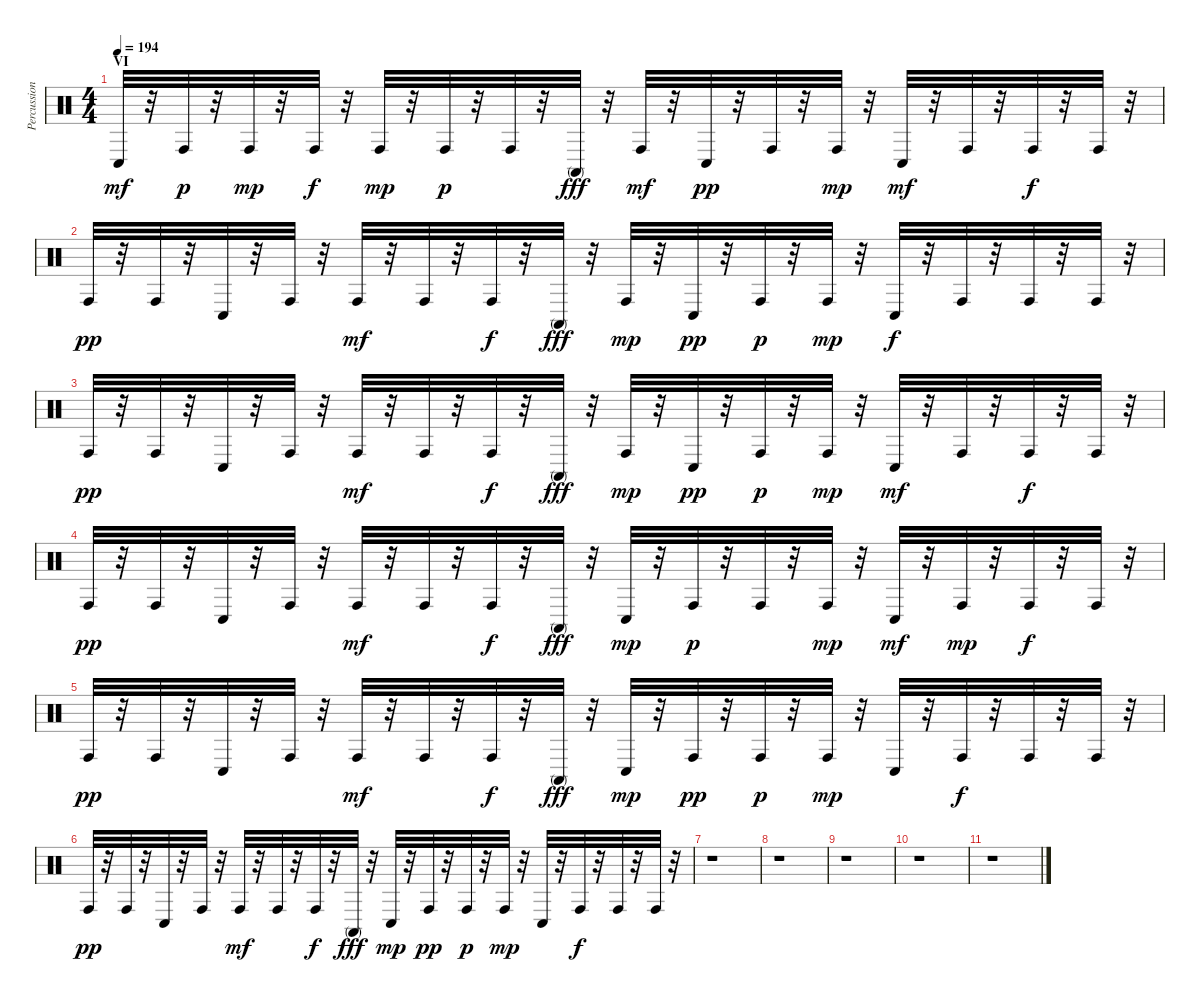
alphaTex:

\track ("Percussions" "Percussion") {instrument percussion}
\staff {score}
\articulation defaults
\ts (4 4)
\section ("" "VI")
\tempo 194
\clef neutral
\ks c "Conga low (hit)".32{dy mf}
r.32 "Conga high (hit)".32{dy p} r.32 "Conga high (hit)".32{dy mp} r.32 "Conga high (hit)".32{dy f} r.32 "Conga high (hit)".32{dy mp} r.32 "Conga high (hit)".32{dy p} r.32 "Conga high (hit)".32 r.32 "Conga high (mute)".32{dy fff} r.32 "Conga high (hit)".32{dy mf} r.32 "Conga low (hit)".32{dy pp} r.32 "Conga high (hit)".32 r.32 "Conga high (hit)".32{dy mp} r.32 "Conga low (hit)".32{dy mf} r.32 "Conga high (hit)".32 r.32 "Conga high (hit)".32{dy f} r.32 "Conga high (hit)".32 r.32 |
"Conga high (hit)".32{dy pp} r.32 "Conga high (hit)".32 r.32 "Conga low (hit)".32 r.32 "Conga high (hit)".32 r.32 "Conga high (hit)".32{dy mf} r.32 "Conga high (hit)".32 r.32 "Conga high (hit)".32{dy f} r.32 "Conga high (mute)".32{dy fff} r.32 "Conga high (hit)".32{dy mp} r.32 "Conga low (hit)".32{dy pp} r.32 "Conga high (hit)".32{dy p} r.32 "Conga high (hit)".32{dy mp} r.32 "Conga low (hit)".32{dy f} r.32 "Conga high (hit)".32 r.32 "Conga high (hit)".32 r.32 "Conga high (hit)".32 r.32 |
"Conga high (hit)".32{dy pp} r.32 "Conga high (hit)".32 r.32 "Conga low (hit)".32 r.32 "Conga high (hit)".32 r.32 "Conga high (hit)".32{dy mf} r.32 "Conga high (hit)".32 r.32 "Conga high (hit)".32{dy f} r.32 "Conga high (mute)".32{dy fff} r.32 "Conga high (hit)".32{dy mp} r.32 "Conga low (hit)".32{dy pp} r.32 "Conga high (hit)".32{dy p} r.32 "Conga high (hit)".32{dy mp} r.32 "Conga low (hit)".32{dy mf} r.32 "Conga high (hit)".32 r.32 "Conga high (hit)".32{dy f} r.32 "Conga high (hit)".32 r.32 |
"Conga high (hit)".32{dy pp} r.32 "Conga high (hit)".32 r.32 "Conga low (hit)".32 r.32 "Conga high (hit)".32 r.32 "Conga high (hit)".32{dy mf} r.32 "Conga high (hit)".32 r.32 "Conga high (hit)".32{dy f} r.32 "Conga high (mute)".32{dy fff} r.32 "Conga low (hit)".32{dy mp} r.32 "Conga high (hit)".32{dy p} r.32 "Conga high (hit)".32 r.32 "Conga high (hit)".32{dy mp} r.32 "Conga low (hit)".32{dy mf} r.32 "Conga high (hit)".32{dy mp} r.32 "Conga high (hit)".32{dy f} r.32 "Conga high (hit)".32 r.32 |
"Conga high (hit)".32{dy pp} r.32 "Conga high (hit)".32 r.32 "Conga low (hit)".32 r.32 "Conga high (hit)".32 r.32 "Conga high (hit)".32{dy mf} r.32 "Conga high (hit)".32 r.32 "Conga high (hit)".32{dy f} r.32 "Conga high (mute)".32{dy fff} r.32 "Conga low (hit)".32{dy mp} r.32 "Conga high (hit)".32{dy pp} r.32 "Conga high (hit)".32{dy p} r.32 "Conga high (hit)".32{dy mp} r.32 "Conga low (hit)".32 r.32 "Conga high (hit)".32{dy f} r.32 "Conga high (hit)".32 r.32 "Conga high (hit)".32 r.32 |
"Conga high (hit)".32{dy pp} r.32 "Conga high (hit)".32 r.32 "Conga low (hit)".32 r.32 "Conga high (hit)".32 r.32 "Conga high (hit)".32{dy mf} r.32 "Conga high (hit)".32 r.32 "Conga high (hit)".32{dy f} r.32 "Conga high (mute)".32{dy fff} r.32 "Conga low (hit)".32{dy mp} r.32 "Conga high (hit)".32{dy pp} r.32 "Conga high (hit)".32{dy p} r.32 "Conga high (hit)".32{dy mp} r.32 "Conga low (hit)".32 r.32 "Conga high (hit)".32{dy f} r.32 "Conga high (hit)".32 r.32 "Conga high (hit)".32 r.32 |
r.1 |
r.1 |
r.1 |
r.1 |
r.1
